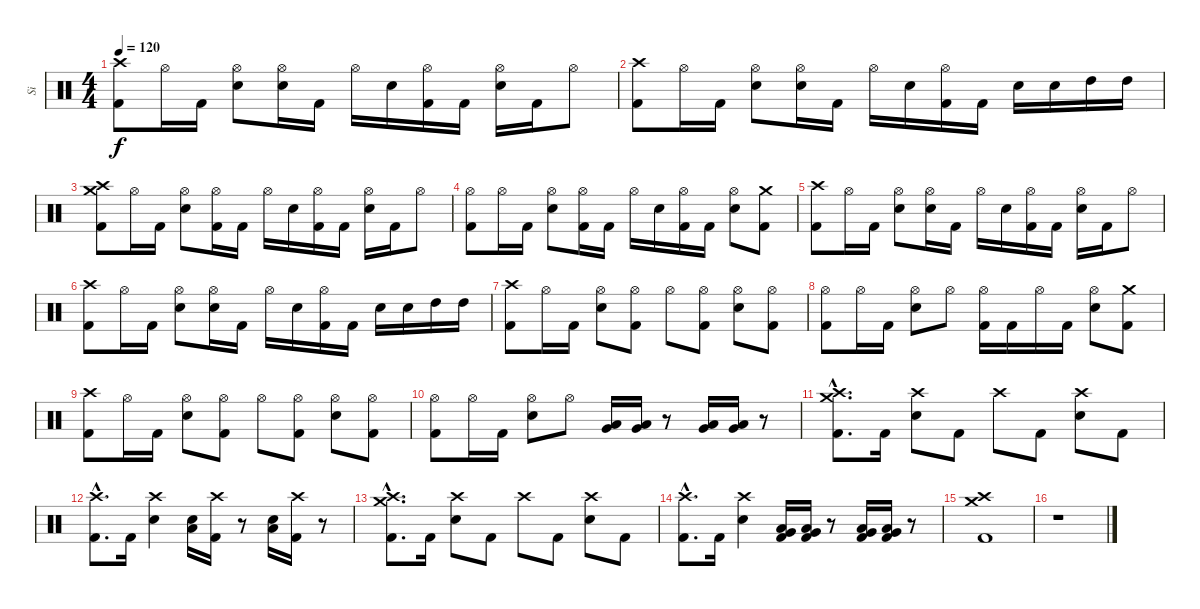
\track ("Si" "Si") {instrument percussion}
\staff {score}
\articulation defaults
\ts (4 4)
\tempo 120
\clef neutral
\ks c
("Crash high (hit)" "Kick (hit) 2").8{dy f} "Hi-Hat (open)".16 "Kick (hit) 2".16 ("Hi-Hat (open)" "Electric Snare (hit)").8 ("Hi-Hat (open)" "Electric Snare (hit)").16 "Kick (hit) 2".16 "Hi-Hat (open)".16 "Electric Snare (hit)".16 ("Hi-Hat (open)" "Kick (hit) 2").16 "Kick (hit) 2".16 ("Hi-Hat (open)" "Electric Snare (hit)").16 "Kick (hit) 2".16 "Hi-Hat (open)".8 |
("Crash high (hit)" "Kick (hit) 2").8 "Hi-Hat (open)".16 "Kick (hit) 2".16 ("Hi-Hat (open)" "Electric Snare (hit)").8 ("Hi-Hat (open)" "Electric Snare (hit)").16 "Kick (hit) 2".16 "Hi-Hat (open)".16 "Electric Snare (hit)".16 ("Hi-Hat (open)" "Kick (hit) 2").16 "Kick (hit) 2".16 "Electric Snare (hit)".16 "Electric Snare (hit)".16 "High Tom (hit)".16 "High Tom (hit)".16 |
("Crash high (hit)" "Crash medium (hit)" "Kick (hit) 2").8 "Hi-Hat (open)".16 "Kick (hit) 2".16 ("Hi-Hat (open)" "Electric Snare (hit)").8 ("Hi-Hat (open)" "Kick (hit) 2").16 "Kick (hit) 2".16 "Hi-Hat (open)".16 "Electric Snare (hit)".16 ("Hi-Hat (open)" "Kick (hit) 2").16 "Kick (hit) 2".16 ("Hi-Hat (open)" "Electric Snare (hit)").16 "Kick (hit) 2".16 "Hi-Hat (open)".8 |
("Hi-Hat (open)" "Kick (hit) 2").8 "Hi-Hat (open)".16 "Kick (hit) 2".16 ("Hi-Hat (open)" "Electric Snare (hit)").8 ("Hi-Hat (open)" "Kick (hit) 2").16 "Kick (hit) 2".16 "Hi-Hat (open)".16 "Electric Snare (hit)".16 ("Hi-Hat (open)" "Kick (hit) 2").16 "Kick (hit) 2".16 ("Hi-Hat (open)" "Electric Snare (hit)").8 ("Crash medium (hit)" "Kick (hit) 2").8 |
("Crash high (hit)" "Kick (hit) 2").8 "Hi-Hat (open)".16 "Kick (hit) 2".16 ("Hi-Hat (open)" "Electric Snare (hit)").8 ("Hi-Hat (open)" "Electric Snare (hit)").16 "Kick (hit) 2".16 "Hi-Hat (open)".16 "Electric Snare (hit)".16 ("Hi-Hat (open)" "Kick (hit) 2").16 "Kick (hit) 2".16 ("Hi-Hat (open)" "Electric Snare (hit)").16 "Kick (hit) 2".16 "Hi-Hat (open)".8 |
("Crash high (hit)" "Kick (hit) 2").8 "Hi-Hat (open)".16 "Kick (hit) 2".16 ("Hi-Hat (open)" "Electric Snare (hit)").8 ("Hi-Hat (open)" "Electric Snare (hit)").16 "Kick (hit) 2".16 "Hi-Hat (open)".16 "Electric Snare (hit)".16 ("Hi-Hat (open)" "Kick (hit) 2").16 "Kick (hit) 2".16 "Electric Snare (hit)".16 "Electric Snare (hit)".16 "High Tom (hit)".16 "High Tom (hit)".16 |
("Crash high (hit)" "Kick (hit) 2").8 "Hi-Hat (open)".16 "Kick (hit) 2".16 ("Hi-Hat (open)" "Electric Snare (hit)").8 ("Hi-Hat (open)" "Kick (hit) 2").8 "Hi-Hat (open)".8 ("Hi-Hat (open)" "Kick (hit) 2").8 ("Hi-Hat (open)" "Electric Snare (hit)").8 ("Hi-Hat (open)" "Kick (hit) 2").8 |
("Hi-Hat (open)" "Kick (hit) 2").8 "Hi-Hat (open)".16 "Kick (hit) 2".16 ("Hi-Hat (open)" "Electric Snare (hit)").8 "Hi-Hat (open)".8 ("Hi-Hat (open)" "Kick (hit) 2").16 "Kick (hit) 2".16 "Hi-Hat (open)".16 "Kick (hit) 2".16 ("Hi-Hat (open)" "Electric Snare (hit)").8 ("Crash medium (hit)" "Kick (hit) 2").8 |
("Crash high (hit)" "Kick (hit) 2").8 "Hi-Hat (open)".16 "Kick (hit) 2".16 ("Hi-Hat (open)" "Electric Snare (hit)").8 ("Hi-Hat (open)" "Kick (hit) 2").8 "Hi-Hat (open)".8 ("Hi-Hat (open)" "Kick (hit) 2").8 ("Hi-Hat (open)" "Electric Snare (hit)").8 ("Hi-Hat (open)" "Kick (hit) 2").8 |
("Hi-Hat (open)" "Kick (hit) 2").8 "Hi-Hat (open)".16 "Kick (hit) 2".16 ("Hi-Hat (open)" "Electric Snare (hit)").8 "Hi-Hat (open)".8 ("Very Low Tom (hit)" "Low Floor Tom (hit)").16 ("Very Low Tom (hit)" "Low Floor Tom (hit)").16 r.8 ("Very Low Tom (hit)" "Low Floor Tom (hit)").16 ("Very Low Tom (hit)" "Low Floor Tom (hit)").16 r.8 |
("Crash high (hit)"{hac} "Crash medium (hit)"{hac} "Kick (hit) 2"{hac}).8{d} "Kick (hit) 2".16 ("Crash high (hit)" "Electric Snare (hit)").8 "Kick (hit) 2".8 "Crash high (hit)".8 "Kick (hit) 2".8 ("Crash high (hit)" "Electric Snare (hit)").8 "Kick (hit) 2".8 |
("Crash high (hit)"{hac} "Kick (hit) 2"{hac}).8{d} "Kick (hit) 2".16 ("Crash high (hit)" "Electric Snare (hit)").4 ("Electric Snare (hit)" "Low Floor Tom (hit)").16 ("Crash high (hit)" "Kick (hit) 2").16 r.8 ("Electric Snare (hit)" "Low Floor Tom (hit)").16 ("Crash high (hit)" "Kick (hit) 2").16 r.8 |
("Crash high (hit)"{hac} "Crash medium (hit)"{hac} "Kick (hit) 2"{hac}).8{d} "Kick (hit) 2".16 ("Crash high (hit)" "Electric Snare (hit)").8 "Kick (hit) 2".8 "Crash high (hit)".8 "Kick (hit) 2".8 ("Crash high (hit)" "Electric Snare (hit)").8 "Kick (hit) 2".8 |
("Crash high (hit)"{hac} "Kick (hit) 2"{hac}).8{d} "Kick (hit) 2".16 ("Crash high (hit)" "Electric Snare (hit)").4 ("Very Low Tom (hit)" "Low Floor Tom (hit)" "Kick (hit) 2").16 ("Very Low Tom (hit)" "Low Floor Tom (hit)" "Kick (hit) 2").16 r.8 ("Very Low Tom (hit)" "Low Floor Tom (hit)" "Kick (hit) 2").16 ("Very Low Tom (hit)" "Low Floor Tom (hit)" "Kick (hit) 2").16 r.8 |
("Crash high (hit)" "Crash medium (hit)" "Kick (hit) 2").1 |
r.1
